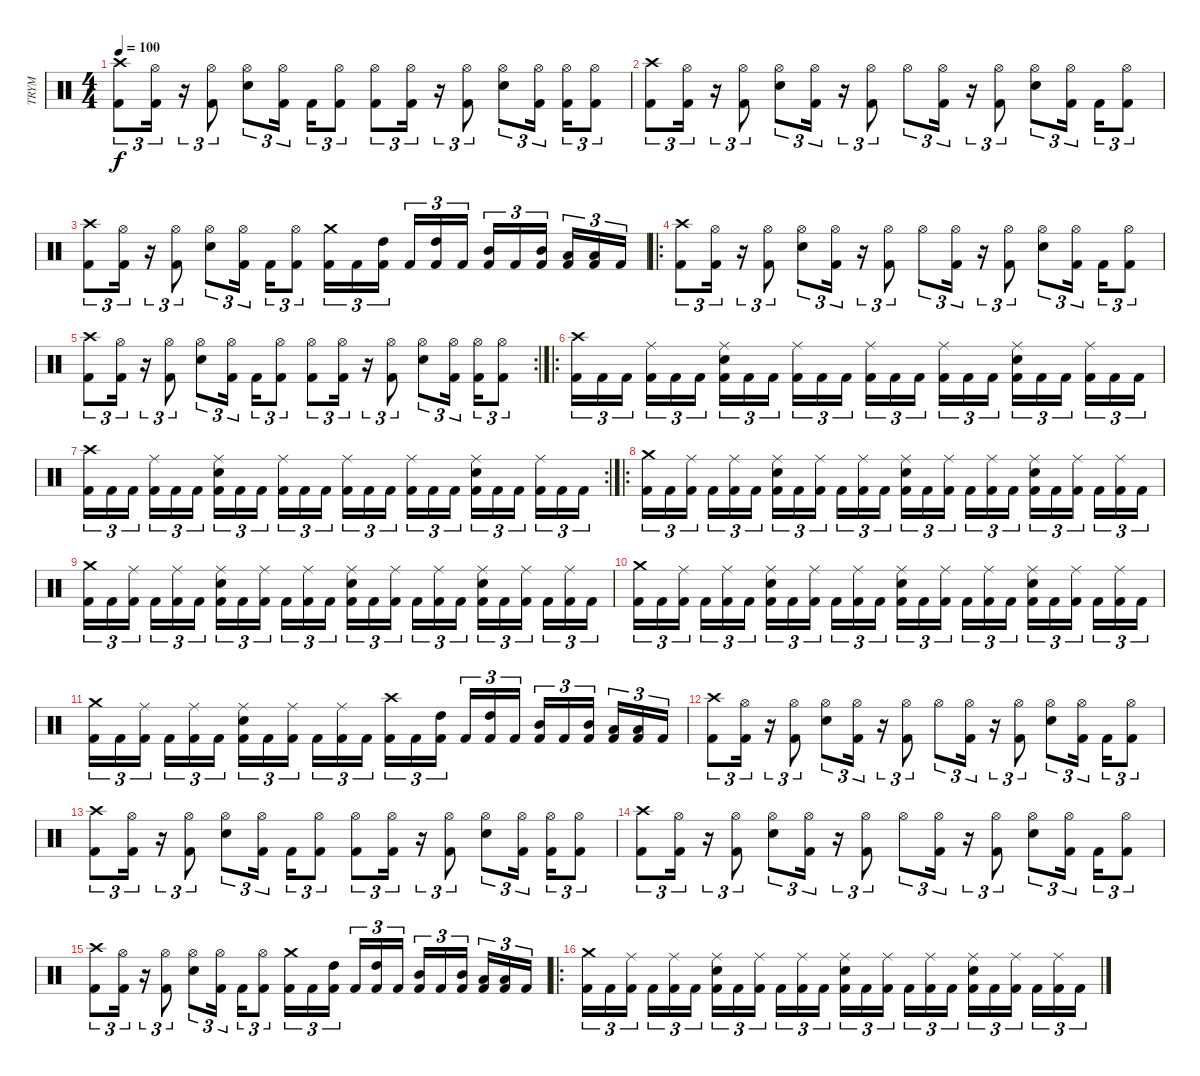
\track ("TRYM" "TRYM") {instrument percussion}
\staff {score}
\articulation defaults
\ts (4 4)
\tempo 100
\clef neutral
\ks c
("Kick (hit) 2" "Crash high (hit)").8{tu (3 2) dy f} ("Kick (hit) 2" "Hi-Hat (open)").16{tu (3 2)} r.16{tu (3 2)} ("Kick (hit) 2" "Hi-Hat (open)").8{tu (3 2)} ("Hi-Hat (open)" "Electric Snare (hit)").8{tu (3 2)} ("Kick (hit) 2" "Hi-Hat (open)").16{tu (3 2) beam splitsecondary} "Kick (hit) 2".16{tu (3 2)} ("Kick (hit) 2" "Hi-Hat (open)").8{tu (3 2)} ("Kick (hit) 2" "Hi-Hat (open)").8{tu (3 2)} ("Kick (hit) 2" "Hi-Hat (open)").16{tu (3 2)} r.16{tu (3 2)} ("Kick (hit) 2" "Hi-Hat (open)").8{tu (3 2)} ("Hi-Hat (open)" "Electric Snare (hit)").8{tu (3 2)} ("Kick (hit) 2" "Hi-Hat (open)").16{tu (3 2) beam splitsecondary} ("Kick (hit) 2" "Hi-Hat (open)").16{tu (3 2)} ("Kick (hit) 2" "Hi-Hat (open)").8{tu (3 2)} |
("Kick (hit) 2" "Crash high (hit)").8{tu (3 2)} ("Kick (hit) 2" "Hi-Hat (open)").16{tu (3 2)} r.16{tu (3 2)} ("Kick (hit) 2" "Hi-Hat (open)").8{tu (3 2)} ("Hi-Hat (open)" "Electric Snare (hit)").8{tu (3 2)} ("Kick (hit) 2" "Hi-Hat (open)").16{tu (3 2)} r.16{tu (3 2)} ("Kick (hit) 2" "Hi-Hat (open)").8{tu (3 2)} "Hi-Hat (open)".8{tu (3 2)} ("Kick (hit) 2" "Hi-Hat (open)").16{tu (3 2)} r.16{tu (3 2)} ("Kick (hit) 2" "Hi-Hat (open)").8{tu (3 2)} ("Hi-Hat (open)" "Electric Snare (hit)").8{tu (3 2)} ("Kick (hit) 2" "Hi-Hat (open)").16{tu (3 2) beam splitsecondary} "Kick (hit) 2".16{tu (3 2)} ("Kick (hit) 2" "Hi-Hat (open)").8{tu (3 2)} |
("Kick (hit) 2" "Crash high (hit)").8{tu (3 2)} ("Kick (hit) 2" "Hi-Hat (open)").16{tu (3 2)} r.16{tu (3 2)} ("Kick (hit) 2" "Hi-Hat (open)").8{tu (3 2)} ("Hi-Hat (open)" "Electric Snare (hit)").8{tu (3 2)} ("Kick (hit) 2" "Hi-Hat (open)").16{tu (3 2) beam splitsecondary} "Kick (hit) 2".16{tu (3 2)} ("Kick (hit) 2" "Hi-Hat (open)").8{tu (3 2)} ("Kick (hit) 2" "Crash medium (hit)").16{tu (3 2)} "Kick (hit) 2".16{tu (3 2)} ("Kick (hit) 2" "High Tom (hit)").16{tu (3 2) beam splitsecondary} "Kick (hit) 2".16{tu (3 2)} ("Kick (hit) 2" "High Tom (hit)").16{tu (3 2)} "Kick (hit) 2".16{tu (3 2)} ("Kick (hit) 2" "Mid Tom (hit)").16{tu (3 2)} "Kick (hit) 2".16{tu (3 2)} ("Kick (hit) 2" "Mid Tom (hit)").16{tu (3 2) beam splitsecondary} ("Kick (hit) 2" "Low Tom (hit)").16{tu (3 2)} ("Kick (hit) 2" "Low Tom (hit)").16{tu (3 2)} "Kick (hit) 2".16{tu (3 2)} |
\ro
("Kick (hit) 2" "Crash high (hit)").8{tu (3 2)} ("Kick (hit) 2" "Hi-Hat (open)").16{tu (3 2)} r.16{tu (3 2)} ("Kick (hit) 2" "Hi-Hat (open)").8{tu (3 2)} ("Hi-Hat (open)" "Electric Snare (hit)").8{tu (3 2)} ("Kick (hit) 2" "Hi-Hat (open)").16{tu (3 2)} r.16{tu (3 2)} ("Kick (hit) 2" "Hi-Hat (open)").8{tu (3 2)} "Hi-Hat (open)".8{tu (3 2)} ("Kick (hit) 2" "Hi-Hat (open)").16{tu (3 2)} r.16{tu (3 2)} ("Kick (hit) 2" "Hi-Hat (open)").8{tu (3 2)} ("Hi-Hat (open)" "Electric Snare (hit)").8{tu (3 2)} ("Kick (hit) 2" "Hi-Hat (open)").16{tu (3 2) beam splitsecondary} "Kick (hit) 2".16{tu (3 2)} ("Kick (hit) 2" "Hi-Hat (open)").8{tu (3 2)} |
\rc 2
("Kick (hit) 2" "Crash high (hit)").8{tu (3 2)} ("Kick (hit) 2" "Hi-Hat (open)").16{tu (3 2)} r.16{tu (3 2)} ("Kick (hit) 2" "Hi-Hat (open)").8{tu (3 2)} ("Hi-Hat (open)" "Electric Snare (hit)").8{tu (3 2)} ("Kick (hit) 2" "Hi-Hat (open)").16{tu (3 2) beam splitsecondary} "Kick (hit) 2".16{tu (3 2)} ("Kick (hit) 2" "Hi-Hat (open)").8{tu (3 2)} ("Kick (hit) 2" "Hi-Hat (open)").8{tu (3 2)} ("Kick (hit) 2" "Hi-Hat (open)").16{tu (3 2)} r.16{tu (3 2)} ("Kick (hit) 2" "Hi-Hat (open)").8{tu (3 2)} ("Hi-Hat (open)" "Electric Snare (hit)").8{tu (3 2)} ("Kick (hit) 2" "Hi-Hat (open)").16{tu (3 2) beam splitsecondary} ("Kick (hit) 2" "Hi-Hat (open)").16{tu (3 2)} ("Kick (hit) 2" "Hi-Hat (open)").8{tu (3 2)} |
\ro
("Kick (hit) 2" "Crash high (hit)").16{tu (3 2)} "Kick (hit) 2".16{tu (3 2)} "Kick (hit) 2".16{tu (3 2) beam splitsecondary} ("Kick (hit) 2" "Ride (middle)").16{tu (3 2)} "Kick (hit) 2".16{tu (3 2)} "Kick (hit) 2".16{tu (3 2)} ("Kick (hit) 2" "Ride (middle)" "Electric Snare (hit)").16{tu (3 2)} "Kick (hit) 2".16{tu (3 2)} "Kick (hit) 2".16{tu (3 2) beam splitsecondary} ("Kick (hit) 2" "Ride (middle)").16{tu (3 2)} "Kick (hit) 2".16{tu (3 2)} "Kick (hit) 2".16{tu (3 2)} ("Kick (hit) 2" "Ride (middle)").16{tu (3 2)} "Kick (hit) 2".16{tu (3 2)} "Kick (hit) 2".16{tu (3 2) beam splitsecondary} ("Kick (hit) 2" "Ride (middle)").16{tu (3 2)} "Kick (hit) 2".16{tu (3 2)} "Kick (hit) 2".16{tu (3 2)} ("Kick (hit) 2" "Ride (middle)" "Electric Snare (hit)").16{tu (3 2)} "Kick (hit) 2".16{tu (3 2)} "Kick (hit) 2".16{tu (3 2) beam splitsecondary} ("Kick (hit) 2" "Ride (middle)").16{tu (3 2)} "Kick (hit) 2".16{tu (3 2)} "Kick (hit) 2".16{tu (3 2)} |
\rc 2
("Kick (hit) 2" "Crash high (hit)").16{tu (3 2)} "Kick (hit) 2".16{tu (3 2)} "Kick (hit) 2".16{tu (3 2) beam splitsecondary} ("Kick (hit) 2" "Ride (middle)").16{tu (3 2)} "Kick (hit) 2".16{tu (3 2)} "Kick (hit) 2".16{tu (3 2)} ("Kick (hit) 2" "Ride (middle)" "Electric Snare (hit)").16{tu (3 2)} "Kick (hit) 2".16{tu (3 2)} "Kick (hit) 2".16{tu (3 2) beam splitsecondary} ("Kick (hit) 2" "Ride (middle)").16{tu (3 2)} "Kick (hit) 2".16{tu (3 2)} "Kick (hit) 2".16{tu (3 2)} ("Kick (hit) 2" "Ride (middle)").16{tu (3 2)} "Kick (hit) 2".16{tu (3 2)} "Kick (hit) 2".16{tu (3 2) beam splitsecondary} ("Kick (hit) 2" "Ride (middle)").16{tu (3 2)} "Kick (hit) 2".16{tu (3 2)} "Kick (hit) 2".16{tu (3 2)} ("Kick (hit) 2" "Ride (middle)" "Electric Snare (hit)").16{tu (3 2)} "Kick (hit) 2".16{tu (3 2)} "Kick (hit) 2".16{tu (3 2) beam splitsecondary} ("Kick (hit) 2" "Ride (middle)").16{tu (3 2)} "Kick (hit) 2".16{tu (3 2)} "Kick (hit) 2".16{tu (3 2)} |
\ro
("Kick (hit) 2" "Crash medium (hit)").16{tu (3 2)} "Kick (hit) 2".16{tu (3 2)} ("Kick (hit) 2" "Ride (middle)").16{tu (3 2) beam splitsecondary} "Kick (hit) 2".16{tu (3 2)} ("Kick (hit) 2" "Ride (middle)").16{tu (3 2)} "Kick (hit) 2".16{tu (3 2)} ("Kick (hit) 2" "Ride (middle)" "Electric Snare (hit)").16{tu (3 2)} "Kick (hit) 2".16{tu (3 2)} ("Kick (hit) 2" "Ride (middle)").16{tu (3 2) beam splitsecondary} "Kick (hit) 2".16{tu (3 2)} ("Kick (hit) 2" "Ride (middle)").16{tu (3 2)} "Kick (hit) 2".16{tu (3 2)} ("Kick (hit) 2" "Ride (middle)" "Electric Snare (hit)").16{tu (3 2)} "Kick (hit) 2".16{tu (3 2)} ("Kick (hit) 2" "Ride (middle)").16{tu (3 2) beam splitsecondary} "Kick (hit) 2".16{tu (3 2)} ("Kick (hit) 2" "Ride (middle)").16{tu (3 2)} "Kick (hit) 2".16{tu (3 2)} ("Kick (hit) 2" "Ride (middle)" "Electric Snare (hit)").16{tu (3 2)} "Kick (hit) 2".16{tu (3 2)} ("Kick (hit) 2" "Ride (middle)").16{tu (3 2) beam splitsecondary} "Kick (hit) 2".16{tu (3 2)} ("Kick (hit) 2" "Ride (middle)").16{tu (3 2)} "Kick (hit) 2".16{tu (3 2)} |
("Kick (hit) 2" "Crash medium (hit)").16{tu (3 2)} "Kick (hit) 2".16{tu (3 2)} ("Kick (hit) 2" "Ride (middle)").16{tu (3 2) beam splitsecondary} "Kick (hit) 2".16{tu (3 2)} ("Kick (hit) 2" "Ride (middle)").16{tu (3 2)} "Kick (hit) 2".16{tu (3 2)} ("Kick (hit) 2" "Ride (middle)" "Electric Snare (hit)").16{tu (3 2)} "Kick (hit) 2".16{tu (3 2)} ("Kick (hit) 2" "Ride (middle)").16{tu (3 2) beam splitsecondary} "Kick (hit) 2".16{tu (3 2)} ("Kick (hit) 2" "Ride (middle)").16{tu (3 2)} "Kick (hit) 2".16{tu (3 2)} ("Kick (hit) 2" "Ride (middle)" "Electric Snare (hit)").16{tu (3 2)} "Kick (hit) 2".16{tu (3 2)} ("Kick (hit) 2" "Ride (middle)").16{tu (3 2) beam splitsecondary} "Kick (hit) 2".16{tu (3 2)} ("Kick (hit) 2" "Ride (middle)").16{tu (3 2)} "Kick (hit) 2".16{tu (3 2)} ("Kick (hit) 2" "Ride (middle)" "Electric Snare (hit)").16{tu (3 2)} "Kick (hit) 2".16{tu (3 2)} ("Kick (hit) 2" "Ride (middle)").16{tu (3 2) beam splitsecondary} "Kick (hit) 2".16{tu (3 2)} ("Kick (hit) 2" "Ride (middle)").16{tu (3 2)} "Kick (hit) 2".16{tu (3 2)} |
("Kick (hit) 2" "Crash medium (hit)").16{tu (3 2)} "Kick (hit) 2".16{tu (3 2)} ("Kick (hit) 2" "Ride (middle)").16{tu (3 2) beam splitsecondary} "Kick (hit) 2".16{tu (3 2)} ("Kick (hit) 2" "Ride (middle)").16{tu (3 2)} "Kick (hit) 2".16{tu (3 2)} ("Kick (hit) 2" "Ride (middle)" "Electric Snare (hit)").16{tu (3 2)} "Kick (hit) 2".16{tu (3 2)} ("Kick (hit) 2" "Ride (middle)").16{tu (3 2) beam splitsecondary} "Kick (hit) 2".16{tu (3 2)} ("Kick (hit) 2" "Ride (middle)").16{tu (3 2)} "Kick (hit) 2".16{tu (3 2)} ("Kick (hit) 2" "Ride (middle)" "Electric Snare (hit)").16{tu (3 2)} "Kick (hit) 2".16{tu (3 2)} ("Kick (hit) 2" "Ride (middle)").16{tu (3 2) beam splitsecondary} "Kick (hit) 2".16{tu (3 2)} ("Kick (hit) 2" "Ride (middle)").16{tu (3 2)} "Kick (hit) 2".16{tu (3 2)} ("Kick (hit) 2" "Ride (middle)" "Electric Snare (hit)").16{tu (3 2)} "Kick (hit) 2".16{tu (3 2)} ("Kick (hit) 2" "Ride (middle)").16{tu (3 2) beam splitsecondary} "Kick (hit) 2".16{tu (3 2)} ("Kick (hit) 2" "Ride (middle)").16{tu (3 2)} "Kick (hit) 2".16{tu (3 2)} |
("Kick (hit) 2" "Crash medium (hit)").16{tu (3 2)} "Kick (hit) 2".16{tu (3 2)} ("Kick (hit) 2" "Ride (middle)").16{tu (3 2) beam splitsecondary} "Kick (hit) 2".16{tu (3 2)} ("Kick (hit) 2" "Ride (middle)").16{tu (3 2)} "Kick (hit) 2".16{tu (3 2)} ("Kick (hit) 2" "Ride (middle)" "Electric Snare (hit)").16{tu (3 2)} "Kick (hit) 2".16{tu (3 2)} ("Kick (hit) 2" "Ride (middle)").16{tu (3 2) beam splitsecondary} "Kick (hit) 2".16{tu (3 2)} ("Kick (hit) 2" "Ride (middle)").16{tu (3 2)} "Kick (hit) 2".16{tu (3 2)} ("Kick (hit) 2" "Crash high (hit)").16{tu (3 2)} "Kick (hit) 2".16{tu (3 2)} ("Kick (hit) 2" "High Tom (hit)").16{tu (3 2) beam splitsecondary} "Kick (hit) 2".16{tu (3 2)} ("Kick (hit) 2" "High Tom (hit)").16{tu (3 2)} "Kick (hit) 2".16{tu (3 2)} ("Kick (hit) 2" "Mid Tom (hit)").16{tu (3 2)} "Kick (hit) 2".16{tu (3 2)} ("Kick (hit) 2" "Mid Tom (hit)").16{tu (3 2) beam splitsecondary} ("Kick (hit) 2" "Low Tom (hit)").16{tu (3 2)} ("Kick (hit) 2" "Low Tom (hit)").16{tu (3 2)} "Kick (hit) 2".16{tu (3 2)} |
("Kick (hit) 2" "Crash high (hit)").8{tu (3 2)} ("Kick (hit) 2" "Hi-Hat (open)").16{tu (3 2)} r.16{tu (3 2)} ("Kick (hit) 2" "Hi-Hat (open)").8{tu (3 2)} ("Hi-Hat (open)" "Electric Snare (hit)").8{tu (3 2)} ("Kick (hit) 2" "Hi-Hat (open)").16{tu (3 2)} r.16{tu (3 2)} ("Kick (hit) 2" "Hi-Hat (open)").8{tu (3 2)} "Hi-Hat (open)".8{tu (3 2)} ("Kick (hit) 2" "Hi-Hat (open)").16{tu (3 2)} r.16{tu (3 2)} ("Kick (hit) 2" "Hi-Hat (open)").8{tu (3 2)} ("Hi-Hat (open)" "Electric Snare (hit)").8{tu (3 2)} ("Kick (hit) 2" "Hi-Hat (open)").16{tu (3 2) beam splitsecondary} "Kick (hit) 2".16{tu (3 2)} ("Kick (hit) 2" "Hi-Hat (open)").8{tu (3 2)} |
("Kick (hit) 2" "Crash high (hit)").8{tu (3 2)} ("Kick (hit) 2" "Hi-Hat (open)").16{tu (3 2)} r.16{tu (3 2)} ("Kick (hit) 2" "Hi-Hat (open)").8{tu (3 2)} ("Hi-Hat (open)" "Electric Snare (hit)").8{tu (3 2)} ("Kick (hit) 2" "Hi-Hat (open)").16{tu (3 2) beam splitsecondary} "Kick (hit) 2".16{tu (3 2)} ("Kick (hit) 2" "Hi-Hat (open)").8{tu (3 2)} ("Kick (hit) 2" "Hi-Hat (open)").8{tu (3 2)} ("Kick (hit) 2" "Hi-Hat (open)").16{tu (3 2)} r.16{tu (3 2)} ("Kick (hit) 2" "Hi-Hat (open)").8{tu (3 2)} ("Hi-Hat (open)" "Electric Snare (hit)").8{tu (3 2)} ("Kick (hit) 2" "Hi-Hat (open)").16{tu (3 2) beam splitsecondary} ("Kick (hit) 2" "Hi-Hat (open)").16{tu (3 2)} ("Kick (hit) 2" "Hi-Hat (open)").8{tu (3 2)} |
("Kick (hit) 2" "Crash high (hit)").8{tu (3 2)} ("Kick (hit) 2" "Hi-Hat (open)").16{tu (3 2)} r.16{tu (3 2)} ("Kick (hit) 2" "Hi-Hat (open)").8{tu (3 2)} ("Hi-Hat (open)" "Electric Snare (hit)").8{tu (3 2)} ("Kick (hit) 2" "Hi-Hat (open)").16{tu (3 2)} r.16{tu (3 2)} ("Kick (hit) 2" "Hi-Hat (open)").8{tu (3 2)} "Hi-Hat (open)".8{tu (3 2)} ("Kick (hit) 2" "Hi-Hat (open)").16{tu (3 2)} r.16{tu (3 2)} ("Kick (hit) 2" "Hi-Hat (open)").8{tu (3 2)} ("Hi-Hat (open)" "Electric Snare (hit)").8{tu (3 2)} ("Kick (hit) 2" "Hi-Hat (open)").16{tu (3 2) beam splitsecondary} "Kick (hit) 2".16{tu (3 2)} ("Kick (hit) 2" "Hi-Hat (open)").8{tu (3 2)} |
("Kick (hit) 2" "Crash high (hit)").8{tu (3 2)} ("Kick (hit) 2" "Hi-Hat (open)").16{tu (3 2)} r.16{tu (3 2)} ("Kick (hit) 2" "Hi-Hat (open)").8{tu (3 2)} ("Hi-Hat (open)" "Electric Snare (hit)").8{tu (3 2)} ("Kick (hit) 2" "Hi-Hat (open)").16{tu (3 2) beam splitsecondary} "Kick (hit) 2".16{tu (3 2)} ("Kick (hit) 2" "Hi-Hat (open)").8{tu (3 2)} ("Kick (hit) 2" "Crash medium (hit)").16{tu (3 2)} "Kick (hit) 2".16{tu (3 2)} ("Kick (hit) 2" "High Tom (hit)").16{tu (3 2) beam splitsecondary} "Kick (hit) 2".16{tu (3 2)} ("Kick (hit) 2" "High Tom (hit)").16{tu (3 2)} "Kick (hit) 2".16{tu (3 2)} ("Kick (hit) 2" "Mid Tom (hit)").16{tu (3 2)} "Kick (hit) 2".16{tu (3 2)} ("Kick (hit) 2" "Mid Tom (hit)").16{tu (3 2) beam splitsecondary} ("Kick (hit) 2" "Low Tom (hit)").16{tu (3 2)} ("Kick (hit) 2" "Low Tom (hit)").16{tu (3 2)} "Kick (hit) 2".16{tu (3 2)} |
\ro
("Kick (hit) 2" "Crash medium (hit)").16{tu (3 2)} "Kick (hit) 2".16{tu (3 2)} ("Kick (hit) 2" "Ride (middle)").16{tu (3 2) beam splitsecondary} "Kick (hit) 2".16{tu (3 2)} ("Kick (hit) 2" "Ride (middle)").16{tu (3 2)} "Kick (hit) 2".16{tu (3 2)} ("Kick (hit) 2" "Ride (middle)" "Electric Snare (hit)").16{tu (3 2)} "Kick (hit) 2".16{tu (3 2)} ("Kick (hit) 2" "Ride (middle)").16{tu (3 2) beam splitsecondary} "Kick (hit) 2".16{tu (3 2)} ("Kick (hit) 2" "Ride (middle)").16{tu (3 2)} "Kick (hit) 2".16{tu (3 2)} ("Kick (hit) 2" "Ride (middle)" "Electric Snare (hit)").16{tu (3 2)} "Kick (hit) 2".16{tu (3 2)} ("Kick (hit) 2" "Ride (middle)").16{tu (3 2) beam splitsecondary} "Kick (hit) 2".16{tu (3 2)} ("Kick (hit) 2" "Ride (middle)").16{tu (3 2)} "Kick (hit) 2".16{tu (3 2)} ("Kick (hit) 2" "Ride (middle)" "Electric Snare (hit)").16{tu (3 2)} "Kick (hit) 2".16{tu (3 2)} ("Kick (hit) 2" "Ride (middle)").16{tu (3 2) beam splitsecondary} "Kick (hit) 2".16{tu (3 2)} ("Kick (hit) 2" "Ride (middle)").16{tu (3 2)} "Kick (hit) 2".16{tu (3 2)}
